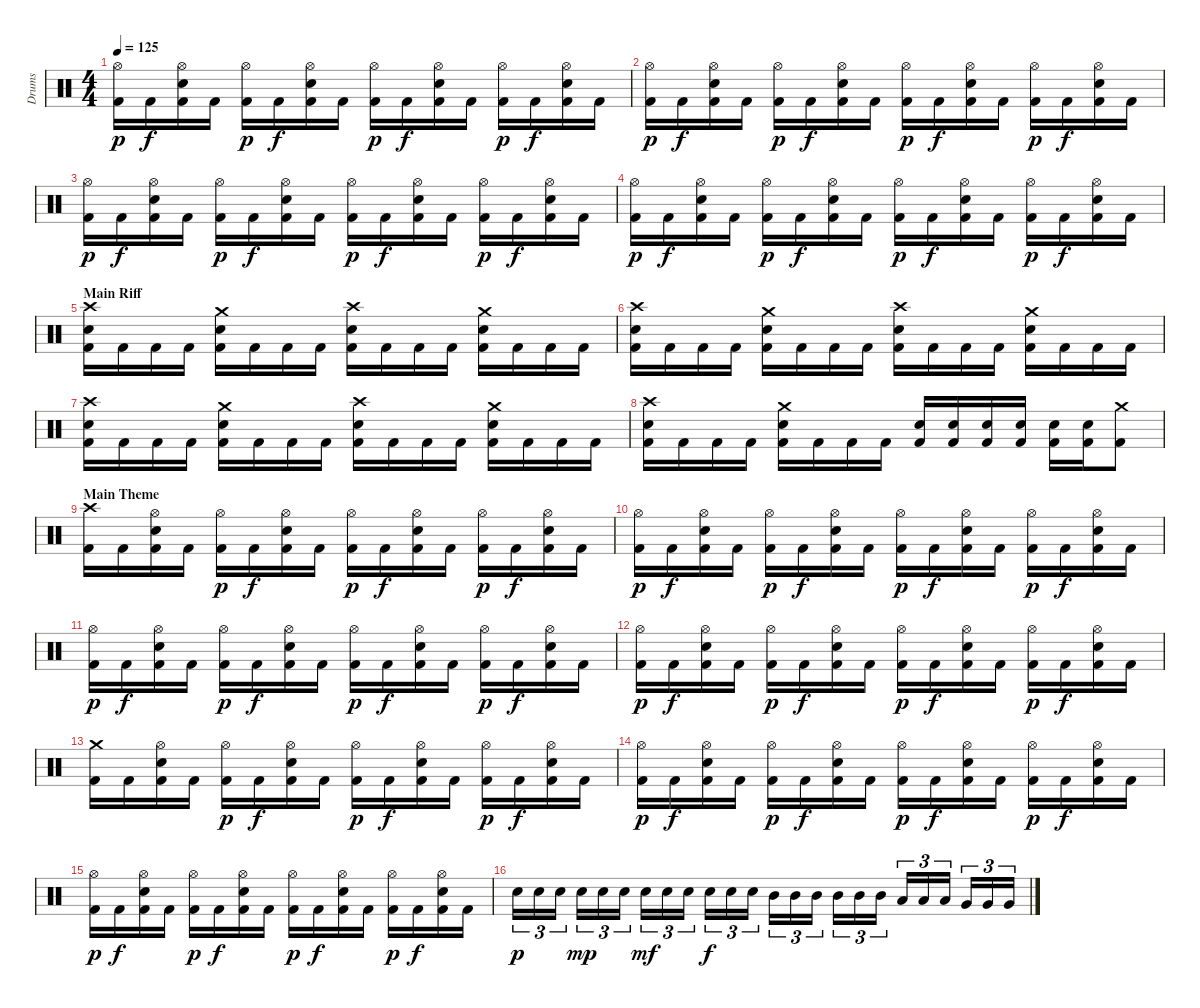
\track ("Drums" "Drums") {instrument percussion}
\staff {score}
\articulation defaults
\ts (4 4)
\tempo 125
\clef neutral
\ks c
("Hi-Hat (open)" "Kick (hit) 2").16{dy p} "Kick (hit) 2".16{dy f} ("Hi-Hat (open)" "Snare (hit) 2" "Kick (hit) 2").16 "Kick (hit) 2".16 ("Hi-Hat (open)" "Kick (hit) 2").16{dy p} "Kick (hit) 2".16{dy f} ("Hi-Hat (open)" "Snare (hit) 2" "Kick (hit) 2").16 "Kick (hit) 2".16 ("Hi-Hat (open)" "Kick (hit) 2").16{dy p} "Kick (hit) 2".16{dy f} ("Hi-Hat (open)" "Snare (hit) 2" "Kick (hit) 2").16 "Kick (hit) 2".16 ("Hi-Hat (open)" "Kick (hit) 2").16{dy p} "Kick (hit) 2".16{dy f} ("Hi-Hat (open)" "Snare (hit) 2" "Kick (hit) 2").16 "Kick (hit) 2".16 |
("Hi-Hat (open)" "Kick (hit) 2").16{dy p} "Kick (hit) 2".16{dy f} ("Hi-Hat (open)" "Snare (hit) 2" "Kick (hit) 2").16 "Kick (hit) 2".16 ("Hi-Hat (open)" "Kick (hit) 2").16{dy p} "Kick (hit) 2".16{dy f} ("Hi-Hat (open)" "Snare (hit) 2" "Kick (hit) 2").16 "Kick (hit) 2".16 ("Hi-Hat (open)" "Kick (hit) 2").16{dy p} "Kick (hit) 2".16{dy f} ("Hi-Hat (open)" "Snare (hit) 2" "Kick (hit) 2").16 "Kick (hit) 2".16 ("Hi-Hat (open)" "Kick (hit) 2").16{dy p} "Kick (hit) 2".16{dy f} ("Hi-Hat (open)" "Snare (hit) 2" "Kick (hit) 2").16 "Kick (hit) 2".16 |
("Hi-Hat (open)" "Kick (hit) 2").16{dy p} "Kick (hit) 2".16{dy f} ("Hi-Hat (open)" "Snare (hit) 2" "Kick (hit) 2").16 "Kick (hit) 2".16 ("Hi-Hat (open)" "Kick (hit) 2").16{dy p} "Kick (hit) 2".16{dy f} ("Hi-Hat (open)" "Snare (hit) 2" "Kick (hit) 2").16 "Kick (hit) 2".16 ("Hi-Hat (open)" "Kick (hit) 2").16{dy p} "Kick (hit) 2".16{dy f} ("Hi-Hat (open)" "Snare (hit) 2" "Kick (hit) 2").16 "Kick (hit) 2".16 ("Hi-Hat (open)" "Kick (hit) 2").16{dy p} "Kick (hit) 2".16{dy f} ("Hi-Hat (open)" "Snare (hit) 2" "Kick (hit) 2").16 "Kick (hit) 2".16 |
("Hi-Hat (open)" "Kick (hit) 2").16{dy p} "Kick (hit) 2".16{dy f} ("Hi-Hat (open)" "Snare (hit) 2" "Kick (hit) 2").16 "Kick (hit) 2".16 ("Hi-Hat (open)" "Kick (hit) 2").16{dy p} "Kick (hit) 2".16{dy f} ("Hi-Hat (open)" "Snare (hit) 2" "Kick (hit) 2").16 "Kick (hit) 2".16 ("Hi-Hat (open)" "Kick (hit) 2").16{dy p} "Kick (hit) 2".16{dy f} ("Hi-Hat (open)" "Snare (hit) 2" "Kick (hit) 2").16 "Kick (hit) 2".16 ("Hi-Hat (open)" "Kick (hit) 2").16{dy p} "Kick (hit) 2".16{dy f} ("Hi-Hat (open)" "Snare (hit) 2" "Kick (hit) 2").16 "Kick (hit) 2".16 |
\section ("" "Main Riff")
("Crash high (hit)" "Snare (hit) 2" "Kick (hit) 2").16 "Kick (hit) 2".16 "Kick (hit) 2".16 "Kick (hit) 2".16 ("Crash medium (hit)" "Snare (hit) 2" "Kick (hit) 2").16 "Kick (hit) 2".16 "Kick (hit) 2".16 "Kick (hit) 2".16 ("Crash high (hit)" "Snare (hit) 2" "Kick (hit) 2").16 "Kick (hit) 2".16 "Kick (hit) 2".16 "Kick (hit) 2".16 ("Crash medium (hit)" "Snare (hit) 2" "Kick (hit) 2").16 "Kick (hit) 2".16 "Kick (hit) 2".16 "Kick (hit) 2".16 |
("Crash high (hit)" "Snare (hit) 2" "Kick (hit) 2").16 "Kick (hit) 2".16 "Kick (hit) 2".16 "Kick (hit) 2".16 ("Crash medium (hit)" "Snare (hit) 2" "Kick (hit) 2").16 "Kick (hit) 2".16 "Kick (hit) 2".16 "Kick (hit) 2".16 ("Crash high (hit)" "Snare (hit) 2" "Kick (hit) 2").16 "Kick (hit) 2".16 "Kick (hit) 2".16 "Kick (hit) 2".16 ("Crash medium (hit)" "Snare (hit) 2" "Kick (hit) 2").16 "Kick (hit) 2".16 "Kick (hit) 2".16 "Kick (hit) 2".16 |
("Crash high (hit)" "Snare (hit) 2" "Kick (hit) 2").16 "Kick (hit) 2".16 "Kick (hit) 2".16 "Kick (hit) 2".16 ("Crash medium (hit)" "Snare (hit) 2" "Kick (hit) 2").16 "Kick (hit) 2".16 "Kick (hit) 2".16 "Kick (hit) 2".16 ("Crash high (hit)" "Snare (hit) 2" "Kick (hit) 2").16 "Kick (hit) 2".16 "Kick (hit) 2".16 "Kick (hit) 2".16 ("Crash medium (hit)" "Snare (hit) 2" "Kick (hit) 2").16 "Kick (hit) 2".16 "Kick (hit) 2".16 "Kick (hit) 2".16 |
("Crash high (hit)" "Snare (hit) 2" "Kick (hit) 2").16 "Kick (hit) 2".16 "Kick (hit) 2".16 "Kick (hit) 2".16 ("Crash medium (hit)" "Snare (hit) 2" "Kick (hit) 2").16 "Kick (hit) 2".16 "Kick (hit) 2".16 "Kick (hit) 2".16 ("Snare (hit) 2" "Kick (hit) 2").16 ("Snare (hit) 2" "Kick (hit) 2").16 ("Snare (hit) 2" "Kick (hit) 2").16 ("Snare (hit) 2" "Kick (hit) 2").16 ("Snare (hit) 2" "Kick (hit) 2").16 ("Snare (hit) 2" "Kick (hit) 2").16 ("Crash medium (hit)" "Kick (hit) 2").8 |
\section ("" "Main Theme")
("Crash high (hit)" "Kick (hit) 2").16 "Kick (hit) 2".16 ("Hi-Hat (open)" "Snare (hit) 2" "Kick (hit) 2").16 "Kick (hit) 2".16 ("Hi-Hat (open)" "Kick (hit) 2").16{dy p} "Kick (hit) 2".16{dy f} ("Hi-Hat (open)" "Snare (hit) 2" "Kick (hit) 2").16 "Kick (hit) 2".16 ("Hi-Hat (open)" "Kick (hit) 2").16{dy p} "Kick (hit) 2".16{dy f} ("Hi-Hat (open)" "Snare (hit) 2" "Kick (hit) 2").16 "Kick (hit) 2".16 ("Hi-Hat (open)" "Kick (hit) 2").16{dy p} "Kick (hit) 2".16{dy f} ("Hi-Hat (open)" "Snare (hit) 2" "Kick (hit) 2").16 "Kick (hit) 2".16 |
("Hi-Hat (open)" "Kick (hit) 2").16{dy p} "Kick (hit) 2".16{dy f} ("Hi-Hat (open)" "Snare (hit) 2" "Kick (hit) 2").16 "Kick (hit) 2".16 ("Hi-Hat (open)" "Kick (hit) 2").16{dy p} "Kick (hit) 2".16{dy f} ("Hi-Hat (open)" "Snare (hit) 2" "Kick (hit) 2").16 "Kick (hit) 2".16 ("Hi-Hat (open)" "Kick (hit) 2").16{dy p} "Kick (hit) 2".16{dy f} ("Hi-Hat (open)" "Snare (hit) 2" "Kick (hit) 2").16 "Kick (hit) 2".16 ("Hi-Hat (open)" "Kick (hit) 2").16{dy p} "Kick (hit) 2".16{dy f} ("Hi-Hat (open)" "Snare (hit) 2" "Kick (hit) 2").16 "Kick (hit) 2".16 |
("Hi-Hat (open)" "Kick (hit) 2").16{dy p} "Kick (hit) 2".16{dy f} ("Hi-Hat (open)" "Snare (hit) 2" "Kick (hit) 2").16 "Kick (hit) 2".16 ("Hi-Hat (open)" "Kick (hit) 2").16{dy p} "Kick (hit) 2".16{dy f} ("Hi-Hat (open)" "Snare (hit) 2" "Kick (hit) 2").16 "Kick (hit) 2".16 ("Hi-Hat (open)" "Kick (hit) 2").16{dy p} "Kick (hit) 2".16{dy f} ("Hi-Hat (open)" "Snare (hit) 2" "Kick (hit) 2").16 "Kick (hit) 2".16 ("Hi-Hat (open)" "Kick (hit) 2").16{dy p} "Kick (hit) 2".16{dy f} ("Hi-Hat (open)" "Snare (hit) 2" "Kick (hit) 2").16 "Kick (hit) 2".16 |
("Hi-Hat (open)" "Kick (hit) 2").16{dy p} "Kick (hit) 2".16{dy f} ("Hi-Hat (open)" "Snare (hit) 2" "Kick (hit) 2").16 "Kick (hit) 2".16 ("Hi-Hat (open)" "Kick (hit) 2").16{dy p} "Kick (hit) 2".16{dy f} ("Hi-Hat (open)" "Snare (hit) 2" "Kick (hit) 2").16 "Kick (hit) 2".16 ("Hi-Hat (open)" "Kick (hit) 2").16{dy p} "Kick (hit) 2".16{dy f} ("Hi-Hat (open)" "Snare (hit) 2" "Kick (hit) 2").16 "Kick (hit) 2".16 ("Hi-Hat (open)" "Kick (hit) 2").16{dy p} "Kick (hit) 2".16{dy f} ("Hi-Hat (open)" "Snare (hit) 2" "Kick (hit) 2").16 "Kick (hit) 2".16 |
("Crash medium (hit)" "Kick (hit) 2").16 "Kick (hit) 2".16 ("Hi-Hat (open)" "Snare (hit) 2" "Kick (hit) 2").16 "Kick (hit) 2".16 ("Hi-Hat (open)" "Kick (hit) 2").16{dy p} "Kick (hit) 2".16{dy f} ("Hi-Hat (open)" "Snare (hit) 2" "Kick (hit) 2").16 "Kick (hit) 2".16 ("Hi-Hat (open)" "Kick (hit) 2").16{dy p} "Kick (hit) 2".16{dy f} ("Hi-Hat (open)" "Snare (hit) 2" "Kick (hit) 2").16 "Kick (hit) 2".16 ("Hi-Hat (open)" "Kick (hit) 2").16{dy p} "Kick (hit) 2".16{dy f} ("Hi-Hat (open)" "Snare (hit) 2" "Kick (hit) 2").16 "Kick (hit) 2".16 |
("Hi-Hat (open)" "Kick (hit) 2").16{dy p} "Kick (hit) 2".16{dy f} ("Hi-Hat (open)" "Snare (hit) 2" "Kick (hit) 2").16 "Kick (hit) 2".16 ("Hi-Hat (open)" "Kick (hit) 2").16{dy p} "Kick (hit) 2".16{dy f} ("Hi-Hat (open)" "Snare (hit) 2" "Kick (hit) 2").16 "Kick (hit) 2".16 ("Hi-Hat (open)" "Kick (hit) 2").16{dy p} "Kick (hit) 2".16{dy f} ("Hi-Hat (open)" "Snare (hit) 2" "Kick (hit) 2").16 "Kick (hit) 2".16 ("Hi-Hat (open)" "Kick (hit) 2").16{dy p} "Kick (hit) 2".16{dy f} ("Hi-Hat (open)" "Snare (hit) 2" "Kick (hit) 2").16 "Kick (hit) 2".16 |
("Hi-Hat (open)" "Kick (hit) 2").16{dy p} "Kick (hit) 2".16{dy f} ("Hi-Hat (open)" "Snare (hit) 2" "Kick (hit) 2").16 "Kick (hit) 2".16 ("Hi-Hat (open)" "Kick (hit) 2").16{dy p} "Kick (hit) 2".16{dy f} ("Hi-Hat (open)" "Snare (hit) 2" "Kick (hit) 2").16 "Kick (hit) 2".16 ("Hi-Hat (open)" "Kick (hit) 2").16{dy p} "Kick (hit) 2".16{dy f} ("Hi-Hat (open)" "Snare (hit) 2" "Kick (hit) 2").16 "Kick (hit) 2".16 ("Hi-Hat (open)" "Kick (hit) 2").16{dy p} "Kick (hit) 2".16{dy f} ("Hi-Hat (open)" "Snare (hit) 2" "Kick (hit) 2").16 "Kick (hit) 2".16 |
"Snare (hit) 2".16{tu (3 2) dy p} "Snare (hit) 2".16{tu (3 2)} "Snare (hit) 2".16{tu (3 2)} "Snare (hit) 2".16{tu (3 2) dy mp} "Snare (hit) 2".16{tu (3 2)} "Snare (hit) 2".16{tu (3 2)} "Snare (hit) 2".16{tu (3 2) dy mf} "Snare (hit) 2".16{tu (3 2)} "Snare (hit) 2".16{tu (3 2)} "Snare (hit) 2".16{tu (3 2) dy f} "Snare (hit) 2".16{tu (3 2)} "Snare (hit) 2".16{tu (3 2)} "Mid Tom (hit)".16{tu (3 2)} "Mid Tom (hit)".16{tu (3 2)} "Mid Tom (hit)".16{tu (3 2)} "Mid Tom (hit)".16{tu (3 2)} "Mid Tom (hit)".16{tu (3 2)} "Mid Tom (hit)".16{tu (3 2)} "Low Tom (hit)".16{tu (3 2)} "Low Tom (hit)".16{tu (3 2)} "Low Tom (hit)".16{tu (3 2)} "Very Low Tom (hit)".16{tu (3 2)} "Very Low Tom (hit)".16{tu (3 2)} "Very Low Tom (hit)".16{tu (3 2)}
